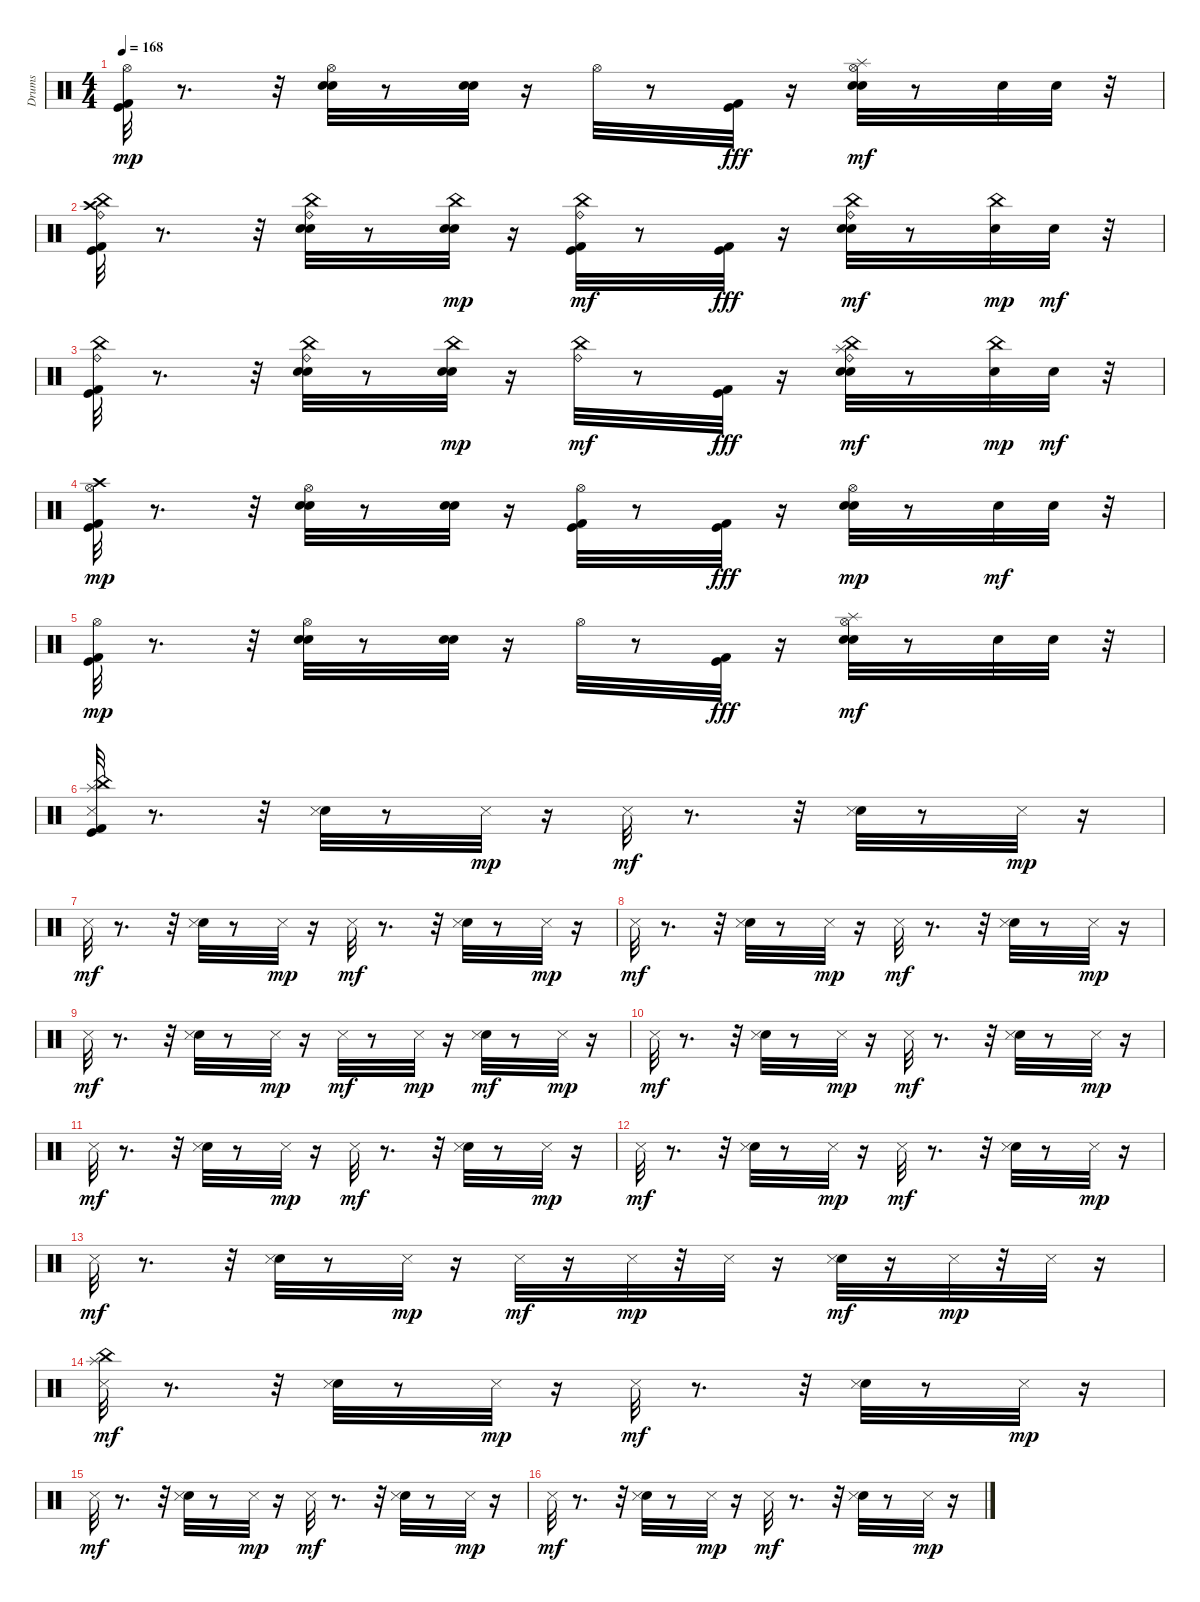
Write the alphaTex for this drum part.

\track ("Drums" "Drums") {instrument percussion}
\staff {score}
\articulation defaults
\ts (4 4)
\tempo 168
\clef neutral
\ks c
("Kick (hit) 2" "Kick (hit)" "Hi-Hat (open)").32{dy mp} r.8{d} r.32 ("Snare (hit) 2" "Hand Clap (hit)" "Hi-Hat (open)").32 r.8 ("Snare (hit) 2" "Hand Clap (hit)").32 r.16 "Hi-Hat (open)".32 r.8 ("Kick (hit) 2" "Kick (hit)").32{dy fff} r.16 ("Snare (hit) 2" "Hand Clap (hit)" "Hi-Hat (open)" "Splash (hit)").32{dy mf} r.8 "Snare (hit) 2".32 "Hand Clap (hit)".32 r.32 |
("Kick (hit) 2" "Kick (hit)" "China (hit)" "Ride (bell)" "Crash high (hit)").32 r.8{d} r.32 ("Snare (hit) 2" "Hand Clap (hit)" "China (hit)" "Ride (bell)").32 r.8 ("Snare (hit) 2" "Hand Clap (hit)" "China (hit)").32{dy mp} r.16 ("Kick (hit) 2" "Kick (hit)" "China (hit)" "Ride (bell)").32{dy mf} r.8 ("Kick (hit) 2" "Kick (hit)").32{dy fff} r.16 ("Snare (hit) 2" "Hand Clap (hit)" "China (hit)" "Ride (bell)").32{dy mf} r.8 ("Snare (hit) 2" "China (hit)").32{dy mp} "Hand Clap (hit)".32{dy mf} r.32 |
("Kick (hit) 2" "Kick (hit)" "China (hit)" "Ride (bell)").32 r.8{d} r.32 ("Snare (hit) 2" "Hand Clap (hit)" "China (hit)" "Ride (bell)").32 r.8 ("Snare (hit) 2" "Hand Clap (hit)" "China (hit)").32{dy mp} r.16 ("China (hit)" "Ride (bell)").32{dy mf} r.8 ("Kick (hit) 2" "Kick (hit)").32{dy fff} r.16 ("Snare (hit) 2" "Hand Clap (hit)" "China (hit)" "Ride (bell)" "Splash (hit)").32{dy mf} r.8 ("Snare (hit) 2" "China (hit)").32{dy mp} "Hand Clap (hit)".32{dy mf} r.32 |
("Kick (hit) 2" "Kick (hit)" "Crash high (hit)" "Hi-Hat (open)").32{dy mp} r.8{d} r.32 ("Snare (hit) 2" "Hand Clap (hit)" "Hi-Hat (open)").32 r.8 ("Snare (hit) 2" "Hand Clap (hit)").32 r.16 ("Kick (hit) 2" "Kick (hit)" "Hi-Hat (open)").32 r.8 ("Kick (hit) 2" "Kick (hit)").32{dy fff} r.16 ("Snare (hit) 2" "Hand Clap (hit)" "Hi-Hat (open)").32{dy mp} r.8 "Snare (hit) 2".32{dy mf} "Hand Clap (hit)".32 r.32 |
("Kick (hit) 2" "Kick (hit)" "Hi-Hat (open)").32{dy mp} r.8{d} r.32 ("Snare (hit) 2" "Hand Clap (hit)" "Hi-Hat (open)").32 r.8 ("Snare (hit) 2" "Hand Clap (hit)").32 r.16 "Hi-Hat (open)".32 r.8 ("Kick (hit) 2" "Kick (hit)").32{dy fff} r.16 ("Snare (hit) 2" "Hand Clap (hit)" "Hi-Hat (open)" "Splash (hit)").32{dy mf} r.8 "Snare (hit) 2".32 "Hand Clap (hit)".32 r.32 |
("Kick (hit) 2" "Kick (hit)" "Splash (hit)" "China (hit)" "Snare (side stick) 3").32 r.8{d} r.32 ("Hand Clap (hit)" "Snare (side stick) 3").32 r.8 "Snare (side stick) 3".32{dy mp} r.16 "Snare (side stick) 3".32{dy mf} r.8{d} r.32 ("Hand Clap (hit)" "Snare (side stick) 3").32 r.8 "Snare (side stick) 3".32{dy mp} r.16 |
"Snare (side stick) 3".32{dy mf} r.8{d} r.32 ("Hand Clap (hit)" "Snare (side stick) 3").32 r.8 "Snare (side stick) 3".32{dy mp} r.16 "Snare (side stick) 3".32{dy mf} r.8{d} r.32 ("Hand Clap (hit)" "Snare (side stick) 3").32 r.8 "Snare (side stick) 3".32{dy mp} r.16 |
"Snare (side stick) 3".32{dy mf} r.8{d} r.32 ("Hand Clap (hit)" "Snare (side stick) 3").32 r.8 "Snare (side stick) 3".32{dy mp} r.16 "Snare (side stick) 3".32{dy mf} r.8{d} r.32 ("Hand Clap (hit)" "Snare (side stick) 3").32 r.8 "Snare (side stick) 3".32{dy mp} r.16 |
"Snare (side stick) 3".32{dy mf} r.8{d} r.32 ("Hand Clap (hit)" "Snare (side stick) 3").32 r.8 "Snare (side stick) 3".32{dy mp} r.16 "Snare (side stick) 3".32{dy mf} r.8 "Snare (side stick) 3".32{dy mp} r.16 ("Hand Clap (hit)" "Snare (side stick) 3").32{dy mf} r.8 "Snare (side stick) 3".32{dy mp} r.16 |
"Snare (side stick) 3".32{dy mf} r.8{d} r.32 ("Hand Clap (hit)" "Snare (side stick) 3").32 r.8 "Snare (side stick) 3".32{dy mp} r.16 "Snare (side stick) 3".32{dy mf} r.8{d} r.32 ("Hand Clap (hit)" "Snare (side stick) 3").32 r.8 "Snare (side stick) 3".32{dy mp} r.16 |
"Snare (side stick) 3".32{dy mf} r.8{d} r.32 ("Hand Clap (hit)" "Snare (side stick) 3").32 r.8 "Snare (side stick) 3".32{dy mp} r.16 "Snare (side stick) 3".32{dy mf} r.8{d} r.32 ("Hand Clap (hit)" "Snare (side stick) 3").32 r.8 "Snare (side stick) 3".32{dy mp} r.16 |
"Snare (side stick) 3".32{dy mf} r.8{d} r.32 ("Hand Clap (hit)" "Snare (side stick) 3").32 r.8 "Snare (side stick) 3".32{dy mp} r.16 "Snare (side stick) 3".32{dy mf} r.8{d} r.32 ("Hand Clap (hit)" "Snare (side stick) 3").32 r.8 "Snare (side stick) 3".32{dy mp} r.16 |
"Snare (side stick) 3".32{dy mf} r.8{d} r.32 ("Hand Clap (hit)" "Snare (side stick) 3").32 r.8 "Snare (side stick) 3".32{dy mp} r.16 "Snare (side stick) 3".32{dy mf} r.16 "Snare (side stick) 3".32{dy mp} r.32 "Snare (side stick) 3".32 r.16 ("Hand Clap (hit)" "Snare (side stick) 3").32{dy mf} r.16 "Snare (side stick) 3".32{dy mp} r.32 "Snare (side stick) 3".32 r.16 |
("Splash (hit)" "China (hit)" "Snare (side stick) 3").32{dy mf} r.8{d} r.32 ("Hand Clap (hit)" "Snare (side stick) 3").32 r.8 "Snare (side stick) 3".32{dy mp} r.16 "Snare (side stick) 3".32{dy mf} r.8{d} r.32 ("Hand Clap (hit)" "Snare (side stick) 3").32 r.8 "Snare (side stick) 3".32{dy mp} r.16 |
"Snare (side stick) 3".32{dy mf} r.8{d} r.32 ("Hand Clap (hit)" "Snare (side stick) 3").32 r.8 "Snare (side stick) 3".32{dy mp} r.16 "Snare (side stick) 3".32{dy mf} r.8{d} r.32 ("Hand Clap (hit)" "Snare (side stick) 3").32 r.8 "Snare (side stick) 3".32{dy mp} r.16 |
"Snare (side stick) 3".32{dy mf} r.8{d} r.32 ("Hand Clap (hit)" "Snare (side stick) 3").32 r.8 "Snare (side stick) 3".32{dy mp} r.16 "Snare (side stick) 3".32{dy mf} r.8{d} r.32 ("Hand Clap (hit)" "Snare (side stick) 3").32 r.8 "Snare (side stick) 3".32{dy mp} r.16
